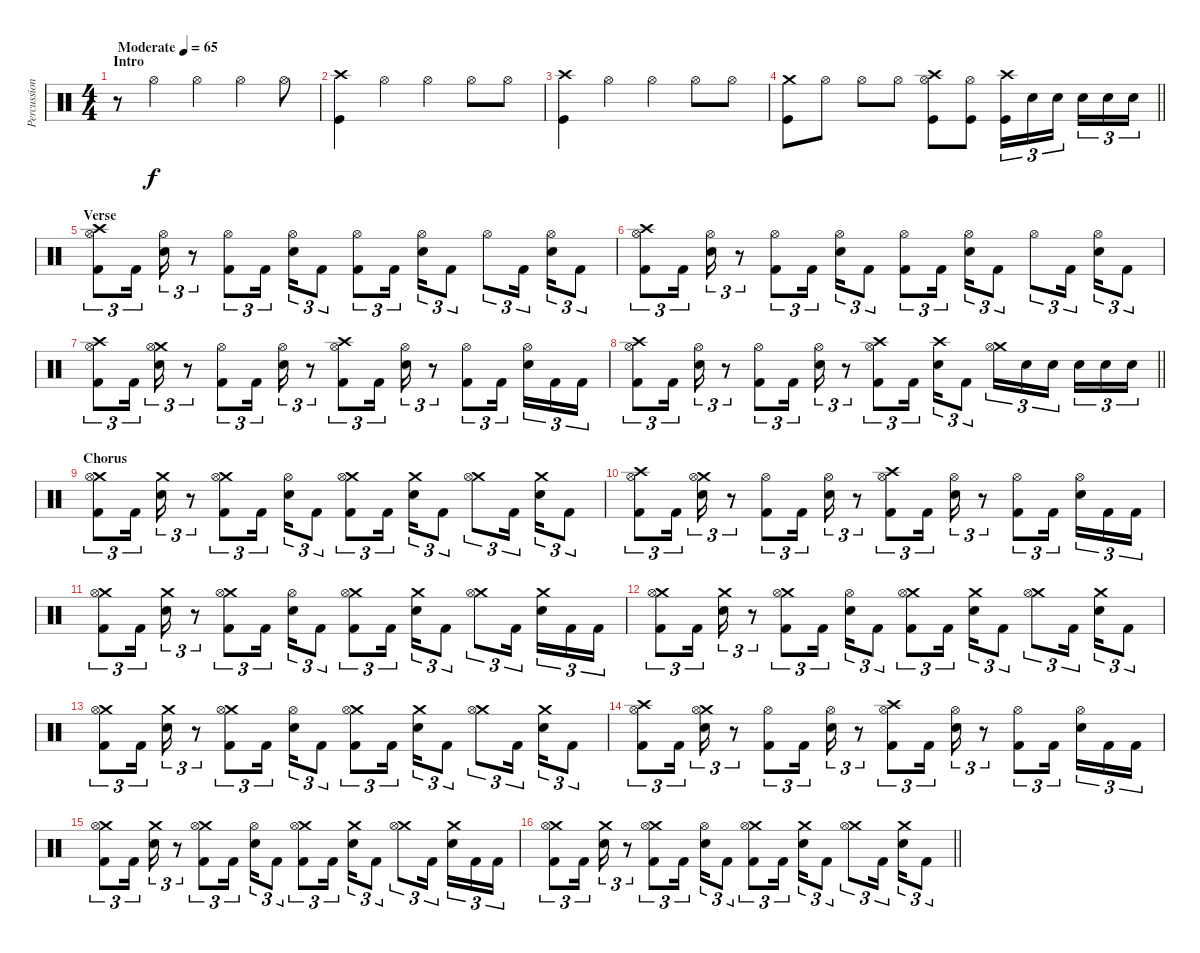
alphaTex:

\track ("Percussion" "Percussion") {instrument percussion}
\staff {score}
\articulation defaults
\ts (4 4)
\section ("" "Intro")
\tempo (65 "Moderate")
\clef neutral
\ks c
r.8{dy f} "Hi-Hat (open)".4 "Hi-Hat (open)".4 "Hi-Hat (open)".4 "Hi-Hat (open)".8 |
("Crash high (hit)" "Kick (hit)").4 "Hi-Hat (open)".4 "Hi-Hat (open)".4 "Hi-Hat (open)".8 "Hi-Hat (open)".8 |
("Crash high (hit)" "Kick (hit)").4 "Hi-Hat (open)".4 "Hi-Hat (open)".4 "Hi-Hat (open)".8 "Hi-Hat (open)".8 |
\barLineRight lightlight
("Crash medium (hit)" "Kick (hit)").8 "Hi-Hat (open)".8 "Hi-Hat (open)".8 "Hi-Hat (open)".8 ("Hi-Hat (open)" "Crash high (hit)" "Kick (hit)").8 ("Hi-Hat (open)" "Kick (hit)").8 ("Crash high (hit)" "Kick (hit)").16{tu (3 2)} "Electric Snare (hit)".16{tu (3 2)} "Electric Snare (hit)".16{tu (3 2) beam splitsecondary} "Electric Snare (hit)".16{tu (3 2)} "Electric Snare (hit)".16{tu (3 2)} "Electric Snare (hit)".16{tu (3 2)} |
\section ("" "Verse")
("Crash high (hit)" "Hi-Hat (open)" "Kick (hit) 2").8{tu (3 2)} "Kick (hit) 2".16{tu (3 2)} ("Hi-Hat (open)" "Electric Snare (hit)").16{tu (3 2)} r.8{tu (3 2)} ("Hi-Hat (open)" "Kick (hit) 2").8{tu (3 2)} "Kick (hit) 2".16{tu (3 2) beam splitsecondary} ("Hi-Hat (open)" "Electric Snare (hit)").16{tu (3 2)} "Kick (hit) 2".8{tu (3 2)} ("Hi-Hat (open)" "Kick (hit) 2").8{tu (3 2)} "Kick (hit) 2".16{tu (3 2) beam splitsecondary} ("Hi-Hat (open)" "Electric Snare (hit)").16{tu (3 2)} "Kick (hit) 2".8{tu (3 2)} "Hi-Hat (open)".8{tu (3 2)} "Kick (hit) 2".16{tu (3 2) beam splitsecondary} ("Hi-Hat (open)" "Electric Snare (hit)").16{tu (3 2)} "Kick (hit) 2".8{tu (3 2)} |
("Crash high (hit)" "Hi-Hat (open)" "Kick (hit) 2").8{tu (3 2)} "Kick (hit) 2".16{tu (3 2)} ("Hi-Hat (open)" "Electric Snare (hit)").16{tu (3 2)} r.8{tu (3 2)} ("Hi-Hat (open)" "Kick (hit) 2").8{tu (3 2)} "Kick (hit) 2".16{tu (3 2) beam splitsecondary} ("Hi-Hat (open)" "Electric Snare (hit)").16{tu (3 2)} "Kick (hit) 2".8{tu (3 2)} ("Hi-Hat (open)" "Kick (hit) 2").8{tu (3 2)} "Kick (hit) 2".16{tu (3 2) beam splitsecondary} ("Hi-Hat (open)" "Electric Snare (hit)").16{tu (3 2)} "Kick (hit) 2".8{tu (3 2)} "Hi-Hat (open)".8{tu (3 2)} "Kick (hit) 2".16{tu (3 2) beam splitsecondary} ("Hi-Hat (open)" "Electric Snare (hit)").16{tu (3 2)} "Kick (hit) 2".8{tu (3 2)} |
("Crash high (hit)" "Hi-Hat (open)" "Kick (hit) 2").8{tu (3 2)} "Kick (hit) 2".16{tu (3 2)} ("Crash medium (hit)" "Hi-Hat (open)" "Electric Snare (hit)").16{tu (3 2)} r.8{tu (3 2)} ("Hi-Hat (open)" "Kick (hit) 2").8{tu (3 2)} "Kick (hit) 2".16{tu (3 2)} ("Hi-Hat (open)" "Electric Snare (hit)").16{tu (3 2)} r.8{tu (3 2)} ("Crash high (hit)" "Hi-Hat (open)" "Kick (hit) 2").8{tu (3 2)} "Kick (hit) 2".16{tu (3 2)} ("Hi-Hat (open)" "Electric Snare (hit)").16{tu (3 2)} r.8{tu (3 2)} ("Hi-Hat (open)" "Kick (hit) 2").8{tu (3 2)} "Kick (hit) 2".16{tu (3 2) beam splitsecondary} ("Hi-Hat (open)" "Electric Snare (hit)").16{tu (3 2)} "Kick (hit) 2".16{tu (3 2)} "Kick (hit) 2".16{tu (3 2)} |
\barLineRight lightlight
("Crash high (hit)" "Hi-Hat (open)" "Kick (hit) 2").8{tu (3 2)} "Kick (hit) 2".16{tu (3 2)} ("Hi-Hat (open)" "Electric Snare (hit)").16{tu (3 2)} r.8{tu (3 2)} ("Hi-Hat (open)" "Kick (hit) 2").8{tu (3 2)} "Kick (hit) 2".16{tu (3 2)} ("Hi-Hat (open)" "Electric Snare (hit)").16{tu (3 2)} r.8{tu (3 2)} ("Crash high (hit)" "Hi-Hat (open)" "Kick (hit) 2").8{tu (3 2)} "Kick (hit) 2".16{tu (3 2) beam splitsecondary} ("Crash high (hit)" "Electric Snare (hit)").16{tu (3 2)} "Kick (hit) 2".8{tu (3 2)} ("Crash medium (hit)" "Hi-Hat (open)").16{tu (3 2)} "Electric Snare (hit)".16{tu (3 2)} "Electric Snare (hit)".16{tu (3 2) beam splitsecondary} "Electric Snare (hit)".16{tu (3 2)} "Electric Snare (hit)".16{tu (3 2)} "Electric Snare (hit)".16{tu (3 2)} |
\section ("" "Chorus")
("Crash medium (hit)" "Hi-Hat (open)" "Kick (hit) 2").8{tu (3 2)} "Kick (hit) 2".16{tu (3 2)} ("Crash medium (hit)" "Electric Snare (hit)").16{tu (3 2)} r.8{tu (3 2)} ("Crash medium (hit)" "Hi-Hat (open)" "Kick (hit) 2").8{tu (3 2)} "Kick (hit) 2".16{tu (3 2) beam splitsecondary} ("Hi-Hat (open)" "Electric Snare (hit)").16{tu (3 2)} "Kick (hit) 2".8{tu (3 2)} ("Crash medium (hit)" "Hi-Hat (open)" "Kick (hit) 2").8{tu (3 2)} "Kick (hit) 2".16{tu (3 2) beam splitsecondary} ("Crash medium (hit)" "Electric Snare (hit)").16{tu (3 2)} "Kick (hit) 2".8{tu (3 2)} ("Crash medium (hit)" "Hi-Hat (open)").8{tu (3 2)} "Kick (hit) 2".16{tu (3 2) beam splitsecondary} ("Crash medium (hit)" "Electric Snare (hit)").16{tu (3 2)} "Kick (hit) 2".8{tu (3 2)} |
("Crash high (hit)" "Hi-Hat (open)" "Kick (hit) 2").8{tu (3 2)} "Kick (hit) 2".16{tu (3 2)} ("Crash medium (hit)" "Hi-Hat (open)" "Electric Snare (hit)").16{tu (3 2)} r.8{tu (3 2)} ("Hi-Hat (open)" "Kick (hit) 2").8{tu (3 2)} "Kick (hit) 2".16{tu (3 2)} ("Hi-Hat (open)" "Electric Snare (hit)").16{tu (3 2)} r.8{tu (3 2)} ("Crash high (hit)" "Hi-Hat (open)" "Kick (hit) 2").8{tu (3 2)} "Kick (hit) 2".16{tu (3 2)} ("Hi-Hat (open)" "Electric Snare (hit)").16{tu (3 2)} r.8{tu (3 2)} ("Hi-Hat (open)" "Kick (hit) 2").8{tu (3 2)} "Kick (hit) 2".16{tu (3 2) beam splitsecondary} ("Hi-Hat (open)" "Electric Snare (hit)").16{tu (3 2)} "Kick (hit) 2".16{tu (3 2)} "Kick (hit) 2".16{tu (3 2)} |
("Crash medium (hit)" "Hi-Hat (open)" "Kick (hit) 2").8{tu (3 2)} "Kick (hit) 2".16{tu (3 2)} ("Crash medium (hit)" "Electric Snare (hit)").16{tu (3 2)} r.8{tu (3 2)} ("Crash medium (hit)" "Hi-Hat (open)" "Kick (hit) 2").8{tu (3 2)} "Kick (hit) 2".16{tu (3 2) beam splitsecondary} ("Hi-Hat (open)" "Electric Snare (hit)").16{tu (3 2)} "Kick (hit) 2".8{tu (3 2)} ("Crash medium (hit)" "Hi-Hat (open)" "Kick (hit) 2").8{tu (3 2)} "Kick (hit) 2".16{tu (3 2) beam splitsecondary} ("Crash medium (hit)" "Electric Snare (hit)").16{tu (3 2)} "Kick (hit) 2".8{tu (3 2)} ("Crash medium (hit)" "Hi-Hat (open)").8{tu (3 2)} "Kick (hit) 2".16{tu (3 2) beam splitsecondary} ("Crash medium (hit)" "Electric Snare (hit)").16{tu (3 2)} "Kick (hit) 2".16{tu (3 2)} "Kick (hit) 2".16{tu (3 2)} |
("Crash medium (hit)" "Hi-Hat (open)" "Kick (hit) 2").8{tu (3 2)} "Kick (hit) 2".16{tu (3 2)} ("Crash medium (hit)" "Electric Snare (hit)").16{tu (3 2)} r.8{tu (3 2)} ("Crash medium (hit)" "Hi-Hat (open)" "Kick (hit) 2").8{tu (3 2)} "Kick (hit) 2".16{tu (3 2) beam splitsecondary} ("Hi-Hat (open)" "Electric Snare (hit)").16{tu (3 2)} "Kick (hit) 2".8{tu (3 2)} ("Crash medium (hit)" "Hi-Hat (open)" "Kick (hit) 2").8{tu (3 2)} "Kick (hit) 2".16{tu (3 2) beam splitsecondary} ("Crash medium (hit)" "Electric Snare (hit)").16{tu (3 2)} "Kick (hit) 2".8{tu (3 2)} ("Crash medium (hit)" "Hi-Hat (open)").8{tu (3 2)} "Kick (hit) 2".16{tu (3 2) beam splitsecondary} ("Crash medium (hit)" "Electric Snare (hit)").16{tu (3 2)} "Kick (hit) 2".8{tu (3 2)} |
("Crash medium (hit)" "Hi-Hat (open)" "Kick (hit) 2").8{tu (3 2)} "Kick (hit) 2".16{tu (3 2)} ("Crash medium (hit)" "Electric Snare (hit)").16{tu (3 2)} r.8{tu (3 2)} ("Crash medium (hit)" "Hi-Hat (open)" "Kick (hit) 2").8{tu (3 2)} "Kick (hit) 2".16{tu (3 2) beam splitsecondary} ("Hi-Hat (open)" "Electric Snare (hit)").16{tu (3 2)} "Kick (hit) 2".8{tu (3 2)} ("Crash medium (hit)" "Hi-Hat (open)" "Kick (hit) 2").8{tu (3 2)} "Kick (hit) 2".16{tu (3 2) beam splitsecondary} ("Crash medium (hit)" "Electric Snare (hit)").16{tu (3 2)} "Kick (hit) 2".8{tu (3 2)} ("Crash medium (hit)" "Hi-Hat (open)").8{tu (3 2)} "Kick (hit) 2".16{tu (3 2) beam splitsecondary} ("Crash medium (hit)" "Electric Snare (hit)").16{tu (3 2)} "Kick (hit) 2".8{tu (3 2)} |
("Crash high (hit)" "Hi-Hat (open)" "Kick (hit) 2").8{tu (3 2)} "Kick (hit) 2".16{tu (3 2)} ("Crash medium (hit)" "Hi-Hat (open)" "Electric Snare (hit)").16{tu (3 2)} r.8{tu (3 2)} ("Hi-Hat (open)" "Kick (hit) 2").8{tu (3 2)} "Kick (hit) 2".16{tu (3 2)} ("Hi-Hat (open)" "Electric Snare (hit)").16{tu (3 2)} r.8{tu (3 2)} ("Crash high (hit)" "Hi-Hat (open)" "Kick (hit) 2").8{tu (3 2)} "Kick (hit) 2".16{tu (3 2)} ("Hi-Hat (open)" "Electric Snare (hit)").16{tu (3 2)} r.8{tu (3 2)} ("Hi-Hat (open)" "Kick (hit) 2").8{tu (3 2)} "Kick (hit) 2".16{tu (3 2) beam splitsecondary} ("Hi-Hat (open)" "Electric Snare (hit)").16{tu (3 2)} "Kick (hit) 2".16{tu (3 2)} "Kick (hit) 2".16{tu (3 2)} |
("Crash medium (hit)" "Hi-Hat (open)" "Kick (hit) 2").8{tu (3 2)} "Kick (hit) 2".16{tu (3 2)} ("Crash medium (hit)" "Electric Snare (hit)").16{tu (3 2)} r.8{tu (3 2)} ("Crash medium (hit)" "Hi-Hat (open)" "Kick (hit) 2").8{tu (3 2)} "Kick (hit) 2".16{tu (3 2) beam splitsecondary} ("Hi-Hat (open)" "Electric Snare (hit)").16{tu (3 2)} "Kick (hit) 2".8{tu (3 2)} ("Crash medium (hit)" "Hi-Hat (open)" "Kick (hit) 2").8{tu (3 2)} "Kick (hit) 2".16{tu (3 2) beam splitsecondary} ("Crash medium (hit)" "Electric Snare (hit)").16{tu (3 2)} "Kick (hit) 2".8{tu (3 2)} ("Crash medium (hit)" "Hi-Hat (open)").8{tu (3 2)} "Kick (hit) 2".16{tu (3 2) beam splitsecondary} ("Crash medium (hit)" "Electric Snare (hit)").16{tu (3 2)} "Kick (hit) 2".16{tu (3 2)} "Kick (hit) 2".16{tu (3 2)} |
\barLineRight lightlight
("Crash medium (hit)" "Hi-Hat (open)" "Kick (hit) 2").8{tu (3 2)} "Kick (hit) 2".16{tu (3 2)} ("Crash medium (hit)" "Electric Snare (hit)").16{tu (3 2)} r.8{tu (3 2)} ("Crash medium (hit)" "Hi-Hat (open)" "Kick (hit) 2").8{tu (3 2)} "Kick (hit) 2".16{tu (3 2) beam splitsecondary} ("Hi-Hat (open)" "Electric Snare (hit)").16{tu (3 2)} "Kick (hit) 2".8{tu (3 2)} ("Crash medium (hit)" "Hi-Hat (open)" "Kick (hit) 2").8{tu (3 2)} "Kick (hit) 2".16{tu (3 2) beam splitsecondary} ("Crash medium (hit)" "Electric Snare (hit)").16{tu (3 2)} "Kick (hit) 2".8{tu (3 2)} ("Crash medium (hit)" "Hi-Hat (open)").8{tu (3 2)} "Kick (hit) 2".16{tu (3 2) beam splitsecondary} ("Crash medium (hit)" "Electric Snare (hit)").16{tu (3 2)} "Kick (hit) 2".8{tu (3 2)}
